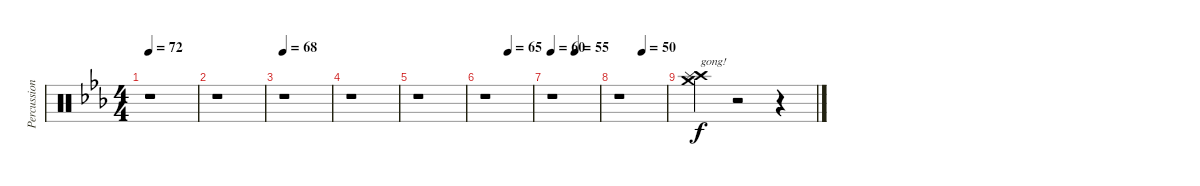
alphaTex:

\track ("Percussion" "Percussion") {instrument percussion}
\staff {score}
\articulation defaults
\ts (4 4)
\tempo 72
\clef neutral
\ks eb
r.1{dy f} |
r.1 |
\tempo 68
r.1 |
r.1 |
r.1 |
\tempo (65 0.5)
r.1 |
\tempo 60
\tempo (55 0.5)
r.1 |
\tempo (50 0.5)
r.1 |
("Crash medium (hit)" "Crash high (hit)" "Splash (hit)").4{txt "gong!"} r.2 r.4
